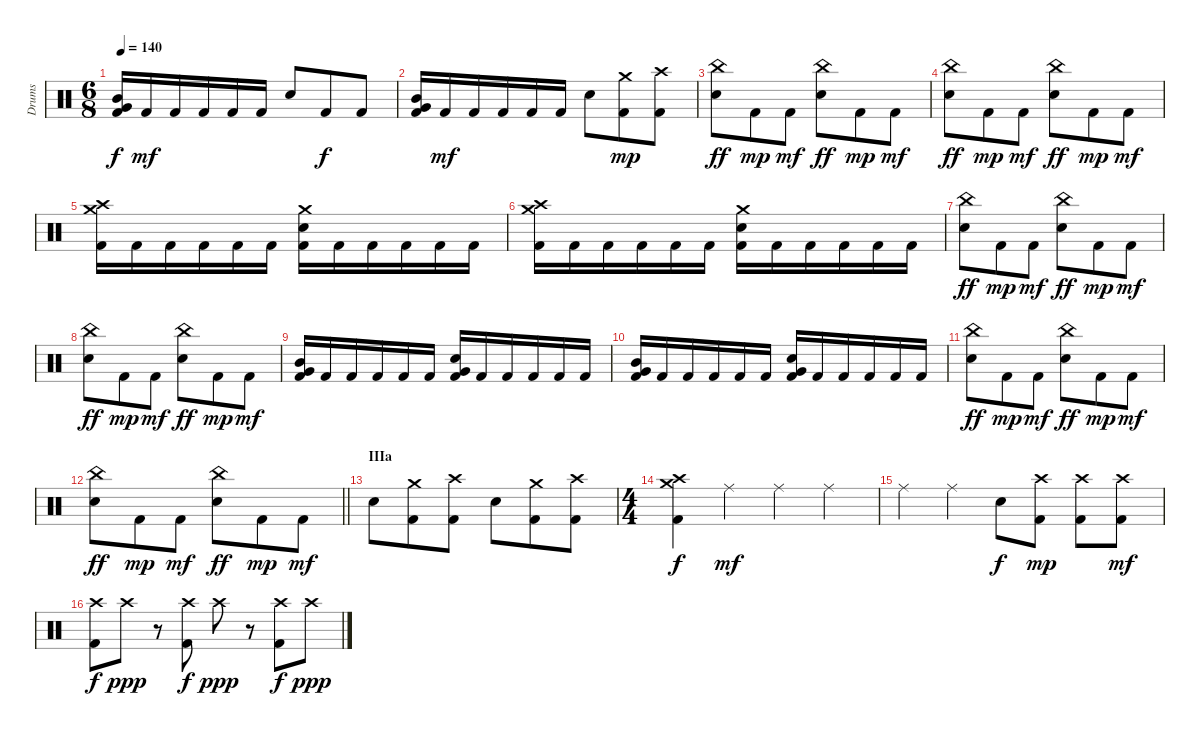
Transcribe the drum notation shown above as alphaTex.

\track ("Drums" "Drums") {instrument percussion}
\staff {score}
\articulation defaults
\ts (6 8)
\tempo 140
\clef neutral
\ks c
("Kick (hit) 2" "Very Low Tom (hit)" "Mid Tom (hit)").16{dy f} "Kick (hit) 2".16{dy mf} "Kick (hit) 2".16 "Kick (hit) 2".16 "Kick (hit) 2".16 "Kick (hit) 2".16 "Electric Snare (hit)".8 "Kick (hit) 2".8{dy f} "Kick (hit) 2".8 |
("Kick (hit) 2" "Very Low Tom (hit)" "Mid Tom (hit)").16 "Kick (hit) 2".16{dy mf} "Kick (hit) 2".16 "Kick (hit) 2".16 "Kick (hit) 2".16 "Kick (hit) 2".16 "Electric Snare (hit)".8 ("Kick (hit) 2" "Crash medium (hit)").8{dy mp} ("Kick (hit) 2" "Crash high (hit)").8 |
("Electric Snare (hit)" "China (hit)").8{dy ff} "Kick (hit) 2".8{dy mp} "Kick (hit) 2".8{dy mf} ("Electric Snare (hit)" "China (hit)").8{dy ff} "Kick (hit) 2".8{dy mp} "Kick (hit) 2".8{dy mf} |
("Electric Snare (hit)" "China (hit)").8{dy ff} "Kick (hit) 2".8{dy mp} "Kick (hit) 2".8{dy mf} ("Electric Snare (hit)" "China (hit)").8{dy ff} "Kick (hit) 2".8{dy mp} "Kick (hit) 2".8{dy mf} |
("Kick (hit) 2" "Crash high (hit)" "Crash medium (hit)").16 "Kick (hit) 2".16 "Kick (hit) 2".16 "Kick (hit) 2".16 "Kick (hit) 2".16 "Kick (hit) 2".16 ("Kick (hit) 2" "Electric Snare (hit)" "Crash medium (hit)").16 "Kick (hit) 2".16 "Kick (hit) 2".16 "Kick (hit) 2".16 "Kick (hit) 2".16 "Kick (hit) 2".16 |
("Kick (hit) 2" "Crash high (hit)" "Crash medium (hit)").16 "Kick (hit) 2".16 "Kick (hit) 2".16 "Kick (hit) 2".16 "Kick (hit) 2".16 "Kick (hit) 2".16 ("Kick (hit) 2" "Electric Snare (hit)" "Crash medium (hit)").16 "Kick (hit) 2".16 "Kick (hit) 2".16 "Kick (hit) 2".16 "Kick (hit) 2".16 "Kick (hit) 2".16 |
("Electric Snare (hit)" "China (hit)").8{dy ff} "Kick (hit) 2".8{dy mp} "Kick (hit) 2".8{dy mf} ("Electric Snare (hit)" "China (hit)").8{dy ff} "Kick (hit) 2".8{dy mp} "Kick (hit) 2".8{dy mf} |
("Electric Snare (hit)" "China (hit)").8{dy ff} "Kick (hit) 2".8{dy mp} "Kick (hit) 2".8{dy mf} ("Electric Snare (hit)" "China (hit)").8{dy ff} "Kick (hit) 2".8{dy mp} "Kick (hit) 2".8{dy mf} |
("Kick (hit) 2" "Very Low Tom (hit)" "Mid Tom (hit)").16 "Kick (hit) 2".16 "Kick (hit) 2".16 "Kick (hit) 2".16 "Kick (hit) 2".16 "Kick (hit) 2".16 ("Kick (hit) 2" "Electric Snare (hit)" "Very Low Tom (hit)").16 "Kick (hit) 2".16 "Kick (hit) 2".16 "Kick (hit) 2".16 "Kick (hit) 2".16 "Kick (hit) 2".16 |
("Kick (hit) 2" "Very Low Tom (hit)" "Mid Tom (hit)").16 "Kick (hit) 2".16 "Kick (hit) 2".16 "Kick (hit) 2".16 "Kick (hit) 2".16 "Kick (hit) 2".16 ("Kick (hit) 2" "Electric Snare (hit)" "Very Low Tom (hit)").16 "Kick (hit) 2".16 "Kick (hit) 2".16 "Kick (hit) 2".16 "Kick (hit) 2".16 "Kick (hit) 2".16 |
("Electric Snare (hit)" "China (hit)").8{dy ff} "Kick (hit) 2".8{dy mp} "Kick (hit) 2".8{dy mf} ("Electric Snare (hit)" "China (hit)").8{dy ff} "Kick (hit) 2".8{dy mp} "Kick (hit) 2".8{dy mf} |
\barLineRight lightlight
("Electric Snare (hit)" "China (hit)").8{dy ff} "Kick (hit) 2".8{dy mp} "Kick (hit) 2".8{dy mf} ("Electric Snare (hit)" "China (hit)").8{dy ff} "Kick (hit) 2".8{dy mp} "Kick (hit) 2".8{dy mf} |
\section ("" "IIIa")
"Electric Snare (hit)".8 ("Kick (hit) 2" "Crash medium (hit)").8 ("Kick (hit) 2" "Crash high (hit)").8 "Electric Snare (hit)".8 ("Kick (hit) 2" "Crash medium (hit)").8 ("Kick (hit) 2" "Crash high (hit)").8 |
\ts (4 4)
("Kick (hit) 2" "Crash medium (hit)" "Crash high (hit)").4{dy f} "Ride (middle)".4{dy mf} "Ride (middle)".4 "Ride (middle)".4 |
"Ride (middle)".4 "Ride (middle)".4 "Electric Snare (hit)".8{dy f} ("Kick (hit) 2" "Crash high (hit)").8{dy mp} ("Kick (hit) 2" "Crash high (hit)").8 ("Kick (hit) 2" "Crash high (hit)").8{dy mf} |
("Kick (hit) 2" "Crash high (hit)").8{dy f} "Crash high (hit)".8{dy ppp} r.8 ("Kick (hit) 2" "Crash high (hit)").8{dy f} "Crash high (hit)".8{dy ppp} r.8 ("Kick (hit) 2" "Crash high (hit)").8{dy f} "Crash high (hit)".8{dy ppp}
